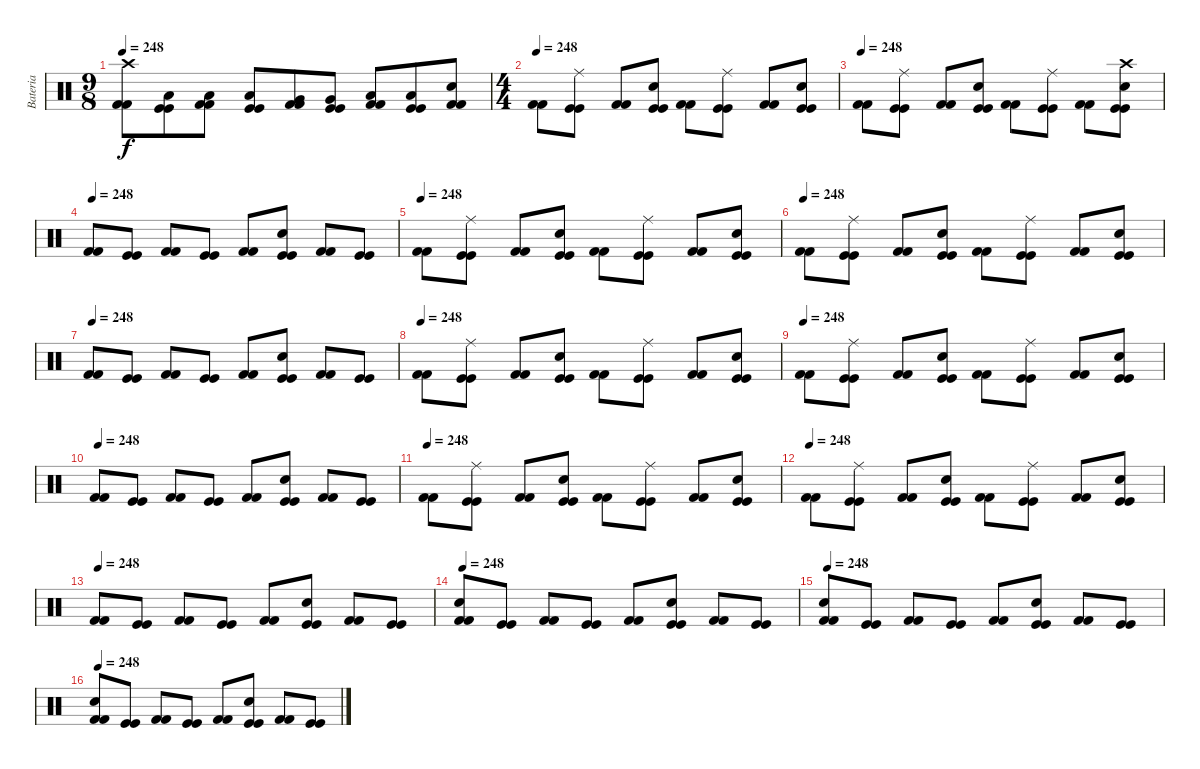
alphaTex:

\track ("Bateria" "Bateria") {instrument percussion}
\staff {score}
\articulation defaults
\ts (9 8)
\tempo 248
\clef neutral
\ks c
("Kick (hit) 2" "Kick (hit) 2" "Crash high (hit)").8{dy f} ("Kick (hit)" "Kick (hit)" "Low Floor Tom (hit)").8 ("Kick (hit) 2" "Kick (hit) 2" "Low Floor Tom (hit)").8 ("Kick (hit)" "Kick (hit)" "Low Floor Tom (hit)").8 ("Kick (hit) 2" "Kick (hit) 2" "Very Low Tom (hit)").8 ("Kick (hit)" "Kick (hit)" "Very Low Tom (hit)").8 ("Kick (hit) 2" "Kick (hit) 2" "Low Tom (hit)").8 ("Kick (hit)" "Kick (hit)" "Low Tom (hit)").8 ("Kick (hit) 2" "Kick (hit) 2" "Snare (hit) 2").8 |
\ts (4 4)
\tempo 248
("Kick (hit) 2" "Kick (hit) 2").8 ("Kick (hit)" "Kick (hit)" "Ride (middle)").8 ("Kick (hit) 2" "Kick (hit) 2").8 ("Kick (hit)" "Kick (hit)" "Snare (hit) 2").8 ("Kick (hit) 2" "Kick (hit) 2").8 ("Kick (hit)" "Kick (hit)" "Ride (middle)").8 ("Kick (hit) 2" "Kick (hit) 2").8 ("Kick (hit)" "Kick (hit)" "Snare (hit) 2").8 |
\tempo 248
("Kick (hit) 2" "Kick (hit) 2").8 ("Kick (hit)" "Kick (hit)" "Ride (middle)").8 ("Kick (hit) 2" "Kick (hit) 2").8 ("Kick (hit)" "Kick (hit)" "Snare (hit) 2").8 ("Kick (hit) 2" "Kick (hit) 2").8 ("Kick (hit)" "Kick (hit)" "Ride (middle)").8 ("Kick (hit) 2" "Kick (hit) 2").8 ("Kick (hit)" "Kick (hit)" "Snare (hit) 2" "Crash high (hit)").8 |
\tempo 248
("Kick (hit) 2" "Kick (hit) 2").8 ("Kick (hit)" "Kick (hit)").8 ("Kick (hit) 2" "Kick (hit) 2").8 ("Kick (hit)" "Kick (hit)").8 ("Kick (hit) 2" "Kick (hit) 2").8 ("Kick (hit)" "Kick (hit)" "Snare (hit) 2").8 ("Kick (hit) 2" "Kick (hit) 2").8 ("Kick (hit)" "Kick (hit)").8 |
\tempo 248
("Kick (hit) 2" "Kick (hit) 2").8 ("Kick (hit)" "Kick (hit)" "Ride (middle)").8 ("Kick (hit) 2" "Kick (hit) 2").8 ("Kick (hit)" "Kick (hit)" "Snare (hit) 2").8 ("Kick (hit) 2" "Kick (hit) 2").8 ("Kick (hit)" "Kick (hit)" "Ride (middle)").8 ("Kick (hit) 2" "Kick (hit) 2").8 ("Kick (hit)" "Kick (hit)" "Snare (hit) 2").8 |
\tempo 248
("Kick (hit) 2" "Kick (hit) 2").8 ("Kick (hit)" "Kick (hit)" "Ride (middle)").8 ("Kick (hit) 2" "Kick (hit) 2").8 ("Kick (hit)" "Kick (hit)" "Snare (hit) 2").8 ("Kick (hit) 2" "Kick (hit) 2").8 ("Kick (hit)" "Kick (hit)" "Ride (middle)").8 ("Kick (hit) 2" "Kick (hit) 2").8 ("Kick (hit)" "Kick (hit)" "Snare (hit) 2").8 |
\tempo 248
("Kick (hit) 2" "Kick (hit) 2").8 ("Kick (hit)" "Kick (hit)").8 ("Kick (hit) 2" "Kick (hit) 2").8 ("Kick (hit)" "Kick (hit)").8 ("Kick (hit) 2" "Kick (hit) 2").8 ("Kick (hit)" "Kick (hit)" "Snare (hit) 2").8 ("Kick (hit) 2" "Kick (hit) 2").8 ("Kick (hit)" "Kick (hit)").8 |
\tempo 248
("Kick (hit) 2" "Kick (hit) 2").8 ("Kick (hit)" "Kick (hit)" "Ride (middle)").8 ("Kick (hit) 2" "Kick (hit) 2").8 ("Kick (hit)" "Kick (hit)" "Snare (hit) 2").8 ("Kick (hit) 2" "Kick (hit) 2").8 ("Kick (hit)" "Kick (hit)" "Ride (middle)").8 ("Kick (hit) 2" "Kick (hit) 2").8 ("Kick (hit)" "Kick (hit)" "Snare (hit) 2").8 |
\tempo 248
("Kick (hit) 2" "Kick (hit) 2").8 ("Kick (hit)" "Kick (hit)" "Ride (middle)").8 ("Kick (hit) 2" "Kick (hit) 2").8 ("Kick (hit)" "Kick (hit)" "Snare (hit) 2").8 ("Kick (hit) 2" "Kick (hit) 2").8 ("Kick (hit)" "Kick (hit)" "Ride (middle)").8 ("Kick (hit) 2" "Kick (hit) 2").8 ("Kick (hit)" "Kick (hit)" "Snare (hit) 2").8 |
\tempo 248
("Kick (hit) 2" "Kick (hit) 2").8 ("Kick (hit)" "Kick (hit)").8 ("Kick (hit) 2" "Kick (hit) 2").8 ("Kick (hit)" "Kick (hit)").8 ("Kick (hit) 2" "Kick (hit) 2").8 ("Kick (hit)" "Kick (hit)" "Snare (hit) 2").8 ("Kick (hit) 2" "Kick (hit) 2").8 ("Kick (hit)" "Kick (hit)").8 |
\tempo 248
("Kick (hit) 2" "Kick (hit) 2").8 ("Kick (hit)" "Kick (hit)" "Ride (middle)").8 ("Kick (hit) 2" "Kick (hit) 2").8 ("Kick (hit)" "Kick (hit)" "Snare (hit) 2").8 ("Kick (hit) 2" "Kick (hit) 2").8 ("Kick (hit)" "Kick (hit)" "Ride (middle)").8 ("Kick (hit) 2" "Kick (hit) 2").8 ("Kick (hit)" "Kick (hit)" "Snare (hit) 2").8 |
\tempo 248
("Kick (hit) 2" "Kick (hit) 2").8 ("Kick (hit)" "Kick (hit)" "Ride (middle)").8 ("Kick (hit) 2" "Kick (hit) 2").8 ("Kick (hit)" "Kick (hit)" "Snare (hit) 2").8 ("Kick (hit) 2" "Kick (hit) 2").8 ("Kick (hit)" "Kick (hit)" "Ride (middle)").8 ("Kick (hit) 2" "Kick (hit) 2").8 ("Kick (hit)" "Kick (hit)" "Snare (hit) 2").8 |
\tempo 248
("Kick (hit) 2" "Kick (hit) 2").8 ("Kick (hit)" "Kick (hit)").8 ("Kick (hit) 2" "Kick (hit) 2").8 ("Kick (hit)" "Kick (hit)").8 ("Kick (hit) 2" "Kick (hit) 2").8 ("Kick (hit)" "Kick (hit)" "Snare (hit) 2").8 ("Kick (hit) 2" "Kick (hit) 2").8 ("Kick (hit)" "Kick (hit)").8 |
\tempo 248
("Kick (hit) 2" "Kick (hit) 2" "Snare (hit) 2").8 ("Kick (hit)" "Kick (hit)").8 ("Kick (hit) 2" "Kick (hit) 2").8 ("Kick (hit)" "Kick (hit)").8 ("Kick (hit) 2" "Kick (hit) 2").8 ("Kick (hit)" "Kick (hit)" "Snare (hit) 2").8 ("Kick (hit) 2" "Kick (hit) 2").8 ("Kick (hit)" "Kick (hit)").8 |
\tempo 248
("Kick (hit) 2" "Kick (hit) 2" "Snare (hit) 2").8 ("Kick (hit)" "Kick (hit)").8 ("Kick (hit) 2" "Kick (hit) 2").8 ("Kick (hit)" "Kick (hit)").8 ("Kick (hit) 2" "Kick (hit) 2").8 ("Kick (hit)" "Kick (hit)" "Snare (hit) 2").8 ("Kick (hit) 2" "Kick (hit) 2").8 ("Kick (hit)" "Kick (hit)").8 |
\tempo 248
("Kick (hit) 2" "Kick (hit) 2" "Snare (hit) 2").8 ("Kick (hit)" "Kick (hit)").8 ("Kick (hit) 2" "Kick (hit) 2").8 ("Kick (hit)" "Kick (hit)").8 ("Kick (hit) 2" "Kick (hit) 2").8 ("Kick (hit)" "Kick (hit)" "Snare (hit) 2").8 ("Kick (hit) 2" "Kick (hit) 2").8 ("Kick (hit)" "Kick (hit)").8
